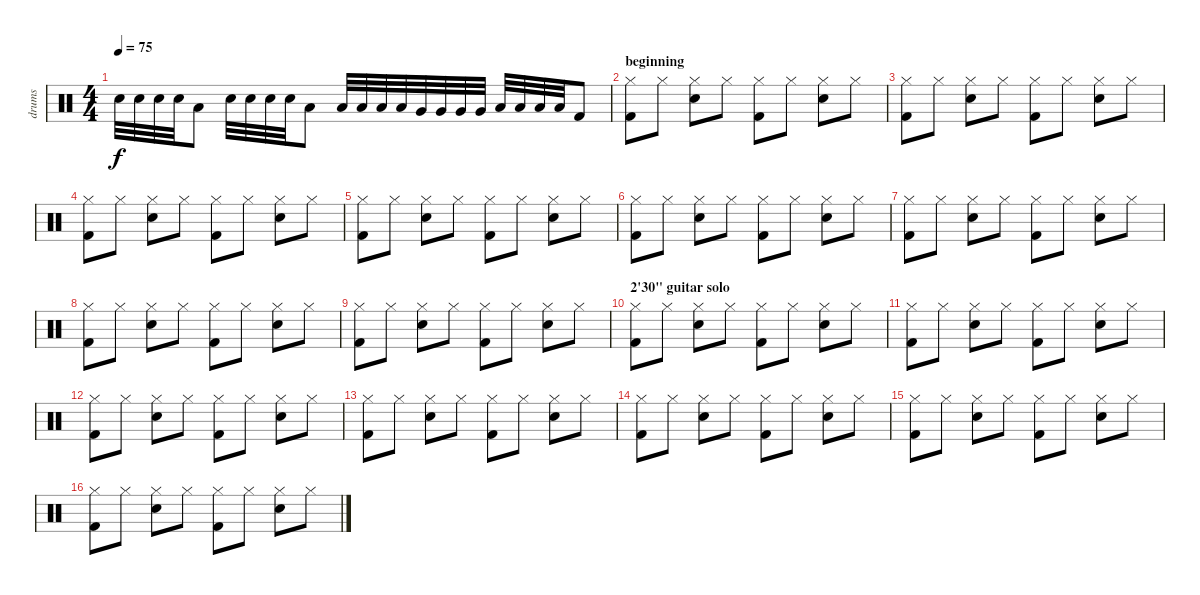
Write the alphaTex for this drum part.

\track ("drums" "drums") {instrument percussion}
\staff {score}
\articulation defaults
\ts (4 4)
\tempo 75
\clef neutral
\ks c "Electric Snare (hit)".32{dy f} "Electric Snare (hit)".32 "Electric Snare (hit)".32 "Electric Snare (hit)".32 "Low Tom (hit)".8 "Electric Snare (hit)".32 "Electric Snare (hit)".32 "Electric Snare (hit)".32 "Electric Snare (hit)".32 "Low Tom (hit)".8 "Low Tom (hit)".32 "Low Tom (hit)".32 "Low Tom (hit)".32 "Low Tom (hit)".32 "Very Low Tom (hit)".32 "Very Low Tom (hit)".32 "Very Low Tom (hit)".32 "Very Low Tom (hit)".32 "Low Floor Tom (hit)".32 "Low Floor Tom (hit)".32 "Low Floor Tom (hit)".32 "Low Floor Tom (hit)".32 "Kick (hit) 2".8
|
\section ("" "beginning")
("Hi-Hat (closed)" "Kick (hit) 2").8 "Hi-Hat (closed)".8 ("Hi-Hat (closed)" "Electric Snare (hit)").8 "Hi-Hat (closed)".8 ("Hi-Hat (closed)" "Kick (hit) 2").8 "Hi-Hat (closed)".8 ("Hi-Hat (closed)" "Electric Snare (hit)").8 "Hi-Hat (closed)".8 |
("Hi-Hat (closed)" "Kick (hit) 2").8 "Hi-Hat (closed)".8 ("Hi-Hat (closed)" "Electric Snare (hit)").8 "Hi-Hat (closed)".8 ("Hi-Hat (closed)" "Kick (hit) 2").8 "Hi-Hat (closed)".8 ("Hi-Hat (closed)" "Electric Snare (hit)").8 "Hi-Hat (closed)".8 |
("Hi-Hat (closed)" "Kick (hit) 2").8 "Hi-Hat (closed)".8 ("Hi-Hat (closed)" "Electric Snare (hit)").8 "Hi-Hat (closed)".8 ("Hi-Hat (closed)" "Kick (hit) 2").8 "Hi-Hat (closed)".8 ("Hi-Hat (closed)" "Electric Snare (hit)").8 "Hi-Hat (closed)".8 |
("Hi-Hat (closed)" "Kick (hit) 2").8 "Hi-Hat (closed)".8 ("Hi-Hat (closed)" "Electric Snare (hit)").8 "Hi-Hat (closed)".8 ("Hi-Hat (closed)" "Kick (hit) 2").8 "Hi-Hat (closed)".8 ("Hi-Hat (closed)" "Electric Snare (hit)").8 "Hi-Hat (closed)".8 |
("Hi-Hat (closed)" "Kick (hit) 2").8 "Hi-Hat (closed)".8 ("Hi-Hat (closed)" "Electric Snare (hit)").8 "Hi-Hat (closed)".8 ("Hi-Hat (closed)" "Kick (hit) 2").8 "Hi-Hat (closed)".8 ("Hi-Hat (closed)" "Electric Snare (hit)").8 "Hi-Hat (closed)".8 |
("Hi-Hat (closed)" "Kick (hit) 2").8 "Hi-Hat (closed)".8 ("Hi-Hat (closed)" "Electric Snare (hit)").8 "Hi-Hat (closed)".8 ("Hi-Hat (closed)" "Kick (hit) 2").8 "Hi-Hat (closed)".8 ("Hi-Hat (closed)" "Electric Snare (hit)").8 "Hi-Hat (closed)".8 |
("Hi-Hat (closed)" "Kick (hit) 2").8 "Hi-Hat (closed)".8 ("Hi-Hat (closed)" "Electric Snare (hit)").8 "Hi-Hat (closed)".8 ("Hi-Hat (closed)" "Kick (hit) 2").8 "Hi-Hat (closed)".8 ("Hi-Hat (closed)" "Electric Snare (hit)").8 "Hi-Hat (closed)".8 |
("Hi-Hat (closed)" "Kick (hit) 2").8 "Hi-Hat (closed)".8 ("Hi-Hat (closed)" "Electric Snare (hit)").8 "Hi-Hat (closed)".8 ("Hi-Hat (closed)" "Kick (hit) 2").8 "Hi-Hat (closed)".8 ("Hi-Hat (closed)" "Electric Snare (hit)").8 "Hi-Hat (closed)".8 |
\section ("" "2'30\" guitar solo")
("Hi-Hat (closed)" "Kick (hit) 2").8 "Hi-Hat (closed)".8 ("Hi-Hat (closed)" "Electric Snare (hit)").8 "Hi-Hat (closed)".8 ("Hi-Hat (closed)" "Kick (hit) 2").8 "Hi-Hat (closed)".8 ("Hi-Hat (closed)" "Electric Snare (hit)").8 "Hi-Hat (closed)".8 |
("Hi-Hat (closed)" "Kick (hit) 2").8 "Hi-Hat (closed)".8 ("Hi-Hat (closed)" "Electric Snare (hit)").8 "Hi-Hat (closed)".8 ("Hi-Hat (closed)" "Kick (hit) 2").8 "Hi-Hat (closed)".8 ("Hi-Hat (closed)" "Electric Snare (hit)").8 "Hi-Hat (closed)".8 |
("Hi-Hat (closed)" "Kick (hit) 2").8 "Hi-Hat (closed)".8 ("Hi-Hat (closed)" "Electric Snare (hit)").8 "Hi-Hat (closed)".8 ("Hi-Hat (closed)" "Kick (hit) 2").8 "Hi-Hat (closed)".8 ("Hi-Hat (closed)" "Electric Snare (hit)").8 "Hi-Hat (closed)".8 |
("Hi-Hat (closed)" "Kick (hit) 2").8 "Hi-Hat (closed)".8 ("Hi-Hat (closed)" "Electric Snare (hit)").8 "Hi-Hat (closed)".8 ("Hi-Hat (closed)" "Kick (hit) 2").8 "Hi-Hat (closed)".8 ("Hi-Hat (closed)" "Electric Snare (hit)").8 "Hi-Hat (closed)".8 |
("Hi-Hat (closed)" "Kick (hit) 2").8 "Hi-Hat (closed)".8 ("Hi-Hat (closed)" "Electric Snare (hit)").8 "Hi-Hat (closed)".8 ("Hi-Hat (closed)" "Kick (hit) 2").8 "Hi-Hat (closed)".8 ("Hi-Hat (closed)" "Electric Snare (hit)").8 "Hi-Hat (closed)".8 |
("Hi-Hat (closed)" "Kick (hit) 2").8 "Hi-Hat (closed)".8 ("Hi-Hat (closed)" "Electric Snare (hit)").8 "Hi-Hat (closed)".8 ("Hi-Hat (closed)" "Kick (hit) 2").8 "Hi-Hat (closed)".8 ("Hi-Hat (closed)" "Electric Snare (hit)").8 "Hi-Hat (closed)".8 |
("Hi-Hat (closed)" "Kick (hit) 2").8 "Hi-Hat (closed)".8 ("Hi-Hat (closed)" "Electric Snare (hit)").8 "Hi-Hat (closed)".8 ("Hi-Hat (closed)" "Kick (hit) 2").8 "Hi-Hat (closed)".8 ("Hi-Hat (closed)" "Electric Snare (hit)").8 "Hi-Hat (closed)".8
